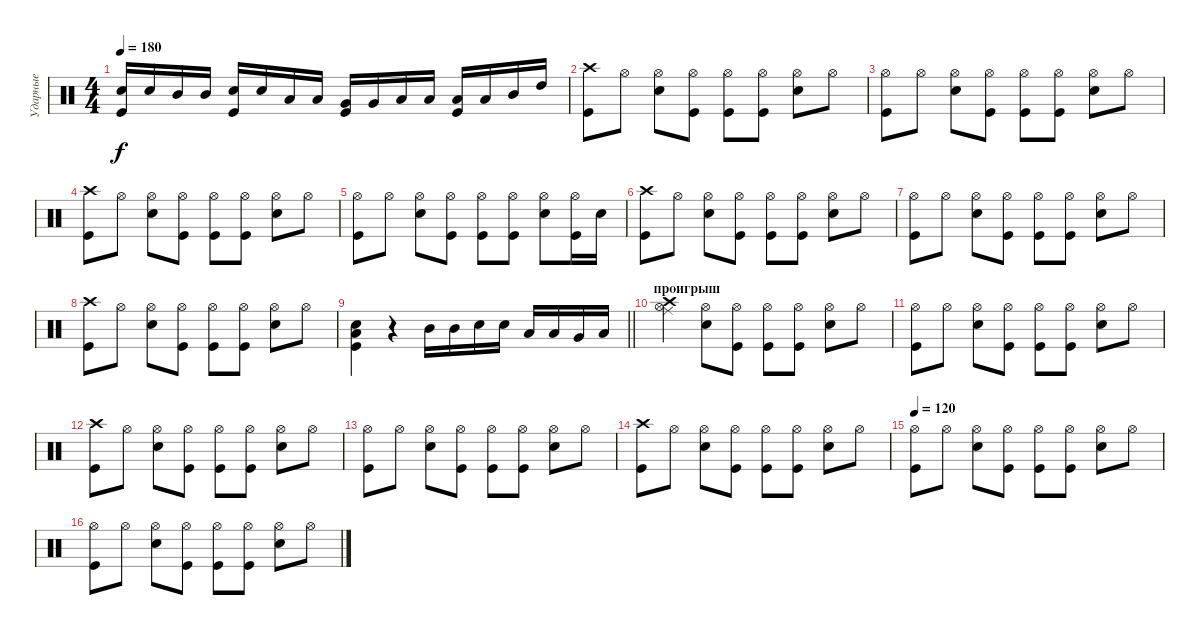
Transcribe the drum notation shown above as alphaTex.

\track ("Ударные" "Ударные") {instrument percussion}
\staff {score}
\articulation defaults
\ts (4 4)
\tempo 180
\clef neutral
\ks c
("Snare (hit) 2" "Kick (hit)").16{dy f} "Snare (hit) 2".16 "Mid Tom (hit)".16 "Mid Tom (hit)".16 ("Snare (hit) 2" "Kick (hit)").16 "Snare (hit) 2".16 "Low Tom (hit)".16 "Low Tom (hit)".16 ("Very Low Tom (hit)" "Kick (hit)").16 "Very Low Tom (hit)".16 "Low Tom (hit)".16 "Low Tom (hit)".16 ("Low Floor Tom (hit)" "Kick (hit)").16 "Low Floor Tom (hit)".16 "Mid Tom (hit)".16 "High Tom (hit)".16 |
("Crash high (hit)" "Kick (hit)").8 "Hi-Hat (open)".8 ("Hi-Hat (open)" "Snare (hit) 2").8 ("Hi-Hat (open)" "Kick (hit)").8 ("Hi-Hat (open)" "Kick (hit)").8 ("Hi-Hat (open)" "Kick (hit)").8 ("Hi-Hat (open)" "Snare (hit) 2").8 "Hi-Hat (open)".8 |
("Hi-Hat (open)" "Kick (hit)").8 "Hi-Hat (open)".8 ("Hi-Hat (open)" "Snare (hit) 2").8 ("Hi-Hat (open)" "Kick (hit)").8 ("Hi-Hat (open)" "Kick (hit)").8 ("Hi-Hat (open)" "Kick (hit)").8 ("Hi-Hat (open)" "Snare (hit) 2").8 "Hi-Hat (open)".8 |
("Crash high (hit)" "Kick (hit)").8 "Hi-Hat (open)".8 ("Hi-Hat (open)" "Snare (hit) 2").8 ("Hi-Hat (open)" "Kick (hit)").8 ("Hi-Hat (open)" "Kick (hit)").8 ("Hi-Hat (open)" "Kick (hit)").8 ("Hi-Hat (open)" "Snare (hit) 2").8 "Hi-Hat (open)".8 |
("Hi-Hat (open)" "Kick (hit)").8 "Hi-Hat (open)".8 ("Hi-Hat (open)" "Snare (hit) 2").8 ("Hi-Hat (open)" "Kick (hit)").8 ("Hi-Hat (open)" "Kick (hit)").8 ("Hi-Hat (open)" "Kick (hit)").8 ("Hi-Hat (open)" "Snare (hit) 2").8 ("Hi-Hat (open)" "Kick (hit)").16 "Snare (hit) 2".16 |
("Crash high (hit)" "Kick (hit)").8 "Hi-Hat (open)".8 ("Hi-Hat (open)" "Snare (hit) 2").8 ("Hi-Hat (open)" "Kick (hit)").8 ("Hi-Hat (open)" "Kick (hit)").8 ("Hi-Hat (open)" "Kick (hit)").8 ("Hi-Hat (open)" "Snare (hit) 2").8 "Hi-Hat (open)".8 |
("Hi-Hat (open)" "Kick (hit)").8 "Hi-Hat (open)".8 ("Hi-Hat (open)" "Snare (hit) 2").8 ("Hi-Hat (open)" "Kick (hit)").8 ("Hi-Hat (open)" "Kick (hit)").8 ("Hi-Hat (open)" "Kick (hit)").8 ("Hi-Hat (open)" "Snare (hit) 2").8 "Hi-Hat (open)".8 |
("Crash high (hit)" "Kick (hit)").8 "Hi-Hat (open)".8 ("Hi-Hat (open)" "Snare (hit) 2").8 ("Hi-Hat (open)" "Kick (hit)").8 ("Hi-Hat (open)" "Kick (hit)").8 ("Hi-Hat (open)" "Kick (hit)").8 ("Hi-Hat (open)" "Snare (hit) 2").8 "Hi-Hat (open)".8 |
\barLineRight lightlight
("Kick (hit)" "Low Tom (hit)" "Snare (hit) 2").4 r.4 "Mid Tom (hit)".16 "Mid Tom (hit)".16 "Snare (hit) 2".16 "Snare (hit) 2".16 "Low Tom (hit)".16 "Low Tom (hit)".16 "Very Low Tom (hit)".16 "Low Floor Tom (hit)".16 |
\section ("" "проигрыш")
("Hi-Hat (open)" "Ride (middle)" "Crash high (hit)").4 ("Hi-Hat (open)" "Snare (hit) 2").8 ("Hi-Hat (open)" "Kick (hit)").8 ("Hi-Hat (open)" "Kick (hit)").8 ("Hi-Hat (open)" "Kick (hit)").8 ("Hi-Hat (open)" "Snare (hit) 2").8 "Hi-Hat (open)".8 |
("Hi-Hat (open)" "Kick (hit)").8 "Hi-Hat (open)".8 ("Hi-Hat (open)" "Snare (hit) 2").8 ("Hi-Hat (open)" "Kick (hit)").8 ("Hi-Hat (open)" "Kick (hit)").8 ("Hi-Hat (open)" "Kick (hit)").8 ("Hi-Hat (open)" "Snare (hit) 2").8 "Hi-Hat (open)".8 |
("Crash high (hit)" "Kick (hit)").8 "Hi-Hat (open)".8 ("Hi-Hat (open)" "Snare (hit) 2").8 ("Hi-Hat (open)" "Kick (hit)").8 ("Hi-Hat (open)" "Kick (hit)").8 ("Hi-Hat (open)" "Kick (hit)").8 ("Hi-Hat (open)" "Snare (hit) 2").8 "Hi-Hat (open)".8 |
("Hi-Hat (open)" "Kick (hit)").8 "Hi-Hat (open)".8 ("Hi-Hat (open)" "Snare (hit) 2").8 ("Hi-Hat (open)" "Kick (hit)").8 ("Hi-Hat (open)" "Kick (hit)").8 ("Hi-Hat (open)" "Kick (hit)").8 ("Hi-Hat (open)" "Snare (hit) 2").8 "Hi-Hat (open)".8 |
("Crash high (hit)" "Kick (hit)").8 "Hi-Hat (open)".8 ("Hi-Hat (open)" "Snare (hit) 2").8 ("Hi-Hat (open)" "Kick (hit)").8 ("Hi-Hat (open)" "Kick (hit)").8 ("Hi-Hat (open)" "Kick (hit)").8 ("Hi-Hat (open)" "Snare (hit) 2").8 "Hi-Hat (open)".8 |
\tempo 120
("Hi-Hat (open)" "Kick (hit)").8 "Hi-Hat (open)".8 ("Hi-Hat (open)" "Snare (hit) 2").8 ("Hi-Hat (open)" "Kick (hit)").8 ("Hi-Hat (open)" "Kick (hit)").8 ("Hi-Hat (open)" "Kick (hit)").8 ("Hi-Hat (open)" "Snare (hit) 2").8 "Hi-Hat (open)".8 |
("Hi-Hat (open)" "Kick (hit)").8 "Hi-Hat (open)".8 ("Hi-Hat (open)" "Snare (hit) 2").8 ("Hi-Hat (open)" "Kick (hit)").8 ("Hi-Hat (open)" "Kick (hit)").8 ("Hi-Hat (open)" "Kick (hit)").8 ("Hi-Hat (open)" "Snare (hit) 2").8 "Hi-Hat (open)".8
